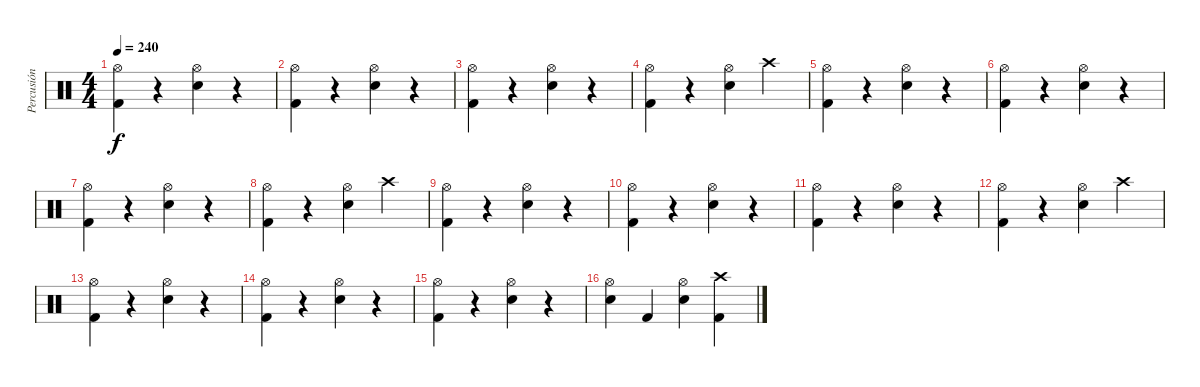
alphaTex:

\track ("Percusión" "Percusión") {instrument percussion}
\staff {score}
\articulation defaults
\ts (4 4)
\tempo 240
\clef neutral
\ks c
("Hi-Hat (open)" "Kick (hit) 2").4{dy f} r.4 ("Hi-Hat (open)" "Electric Snare (hit)").4 r.4 |
("Hi-Hat (open)" "Kick (hit) 2").4 r.4 ("Hi-Hat (open)" "Electric Snare (hit)").4 r.4 |
("Hi-Hat (open)" "Kick (hit) 2").4 r.4 ("Hi-Hat (open)" "Electric Snare (hit)").4 r.4 |
("Hi-Hat (open)" "Kick (hit) 2").4 r.4 ("Hi-Hat (open)" "Electric Snare (hit)").4 "Crash high (hit)".4 |
("Hi-Hat (open)" "Kick (hit) 2").4 r.4 ("Hi-Hat (open)" "Electric Snare (hit)").4 r.4 |
("Hi-Hat (open)" "Kick (hit) 2").4 r.4 ("Hi-Hat (open)" "Electric Snare (hit)").4 r.4 |
("Hi-Hat (open)" "Kick (hit) 2").4 r.4 ("Hi-Hat (open)" "Electric Snare (hit)").4 r.4 |
("Hi-Hat (open)" "Kick (hit) 2").4 r.4 ("Hi-Hat (open)" "Electric Snare (hit)").4 "Crash high (hit)".4 |
("Hi-Hat (open)" "Kick (hit) 2").4 r.4 ("Hi-Hat (open)" "Electric Snare (hit)").4 r.4 |
("Hi-Hat (open)" "Kick (hit) 2").4 r.4 ("Hi-Hat (open)" "Electric Snare (hit)").4 r.4 |
("Hi-Hat (open)" "Kick (hit) 2").4 r.4 ("Hi-Hat (open)" "Electric Snare (hit)").4 r.4 |
("Hi-Hat (open)" "Kick (hit) 2").4 r.4 ("Hi-Hat (open)" "Electric Snare (hit)").4 "Crash high (hit)".4 |
("Hi-Hat (open)" "Kick (hit) 2").4 r.4 ("Hi-Hat (open)" "Electric Snare (hit)").4 r.4 |
("Hi-Hat (open)" "Kick (hit) 2").4 r.4 ("Hi-Hat (open)" "Electric Snare (hit)").4 r.4 |
("Hi-Hat (open)" "Kick (hit) 2").4 r.4 ("Hi-Hat (open)" "Electric Snare (hit)").4 r.4 |
("Hi-Hat (open)" "Electric Snare (hit)").4 "Kick (hit) 2".4 ("Hi-Hat (open)" "Electric Snare (hit)").4 ("Crash high (hit)" "Kick (hit) 2").4
